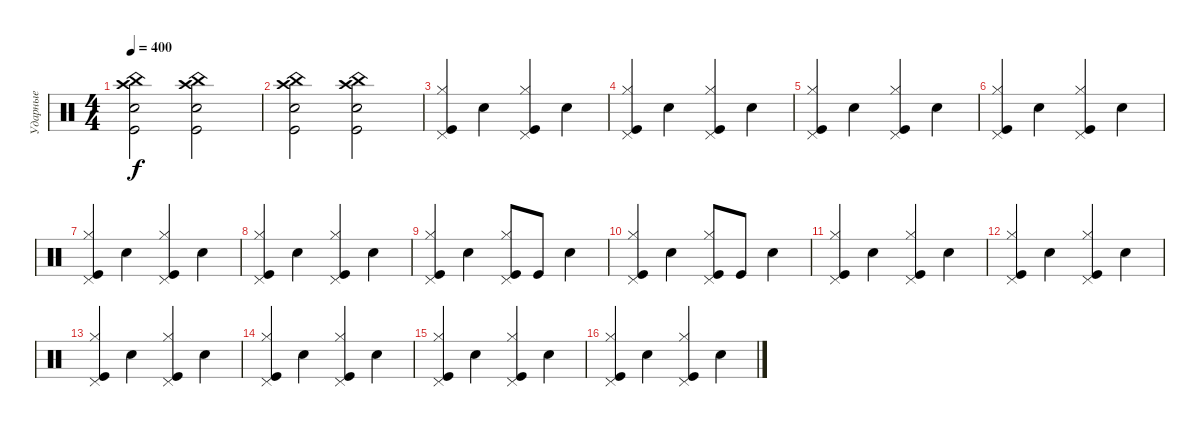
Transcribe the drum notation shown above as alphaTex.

\track ("Ударные" "Ударные") {instrument percussion}
\staff {score}
\articulation defaults
\ts (4 4)
\tempo 400
\clef neutral
\ks c
("Kick (hit)" "Electric Snare (hit)" "Crash high (hit)" "China (hit)").2{dy f} ("China (hit)" "Crash high (hit)" "Kick (hit)" "Electric Snare (hit)").2 |
("Kick (hit)" "Electric Snare (hit)" "Crash high (hit)" "China (hit)").2 ("China (hit)" "Crash high (hit)" "Kick (hit)" "Electric Snare (hit)").2 |
("Kick (hit)" "Hi-Hat (closed)" "Pedal Hi-Hat (hit)").4 "Electric Snare (hit)".4 ("Kick (hit)" "Pedal Hi-Hat (hit)" "Hi-Hat (closed)").4 "Electric Snare (hit)".4 |
("Kick (hit)" "Hi-Hat (closed)" "Pedal Hi-Hat (hit)").4 "Electric Snare (hit)".4 ("Kick (hit)" "Pedal Hi-Hat (hit)" "Hi-Hat (closed)").4 "Electric Snare (hit)".4 |
("Kick (hit)" "Hi-Hat (closed)" "Pedal Hi-Hat (hit)").4 "Electric Snare (hit)".4 ("Kick (hit)" "Pedal Hi-Hat (hit)" "Hi-Hat (closed)").4 "Electric Snare (hit)".4 |
("Kick (hit)" "Hi-Hat (closed)" "Pedal Hi-Hat (hit)").4 "Electric Snare (hit)".4 ("Kick (hit)" "Pedal Hi-Hat (hit)" "Hi-Hat (closed)").4 "Electric Snare (hit)".4 |
("Kick (hit)" "Hi-Hat (closed)" "Pedal Hi-Hat (hit)").4 "Electric Snare (hit)".4 ("Kick (hit)" "Pedal Hi-Hat (hit)" "Hi-Hat (closed)").4 "Electric Snare (hit)".4 |
("Kick (hit)" "Hi-Hat (closed)" "Pedal Hi-Hat (hit)").4 "Electric Snare (hit)".4 ("Kick (hit)" "Pedal Hi-Hat (hit)" "Hi-Hat (closed)").4 "Electric Snare (hit)".4 |
("Kick (hit)" "Hi-Hat (closed)" "Pedal Hi-Hat (hit)").4 "Electric Snare (hit)".4 ("Kick (hit)" "Pedal Hi-Hat (hit)" "Hi-Hat (closed)").8 "Kick (hit)".8 "Electric Snare (hit)".4 |
("Kick (hit)" "Hi-Hat (closed)" "Pedal Hi-Hat (hit)").4 "Electric Snare (hit)".4 ("Kick (hit)" "Pedal Hi-Hat (hit)" "Hi-Hat (closed)").8 "Kick (hit)".8 "Electric Snare (hit)".4 |
("Kick (hit)" "Hi-Hat (closed)" "Pedal Hi-Hat (hit)").4 "Electric Snare (hit)".4 ("Kick (hit)" "Pedal Hi-Hat (hit)" "Hi-Hat (closed)").4 "Electric Snare (hit)".4 |
("Kick (hit)" "Hi-Hat (closed)" "Pedal Hi-Hat (hit)").4 "Electric Snare (hit)".4 ("Kick (hit)" "Pedal Hi-Hat (hit)" "Hi-Hat (closed)").4 "Electric Snare (hit)".4 |
("Kick (hit)" "Hi-Hat (closed)" "Pedal Hi-Hat (hit)").4 "Electric Snare (hit)".4 ("Kick (hit)" "Pedal Hi-Hat (hit)" "Hi-Hat (closed)").4 "Electric Snare (hit)".4 |
("Kick (hit)" "Hi-Hat (closed)" "Pedal Hi-Hat (hit)").4 "Electric Snare (hit)".4 ("Kick (hit)" "Pedal Hi-Hat (hit)" "Hi-Hat (closed)").4 "Electric Snare (hit)".4 |
("Kick (hit)" "Hi-Hat (closed)" "Pedal Hi-Hat (hit)").4 "Electric Snare (hit)".4 ("Kick (hit)" "Pedal Hi-Hat (hit)" "Hi-Hat (closed)").4 "Electric Snare (hit)".4 |
("Kick (hit)" "Hi-Hat (closed)" "Pedal Hi-Hat (hit)").4 "Electric Snare (hit)".4 ("Kick (hit)" "Pedal Hi-Hat (hit)" "Hi-Hat (closed)").4 "Electric Snare (hit)".4
